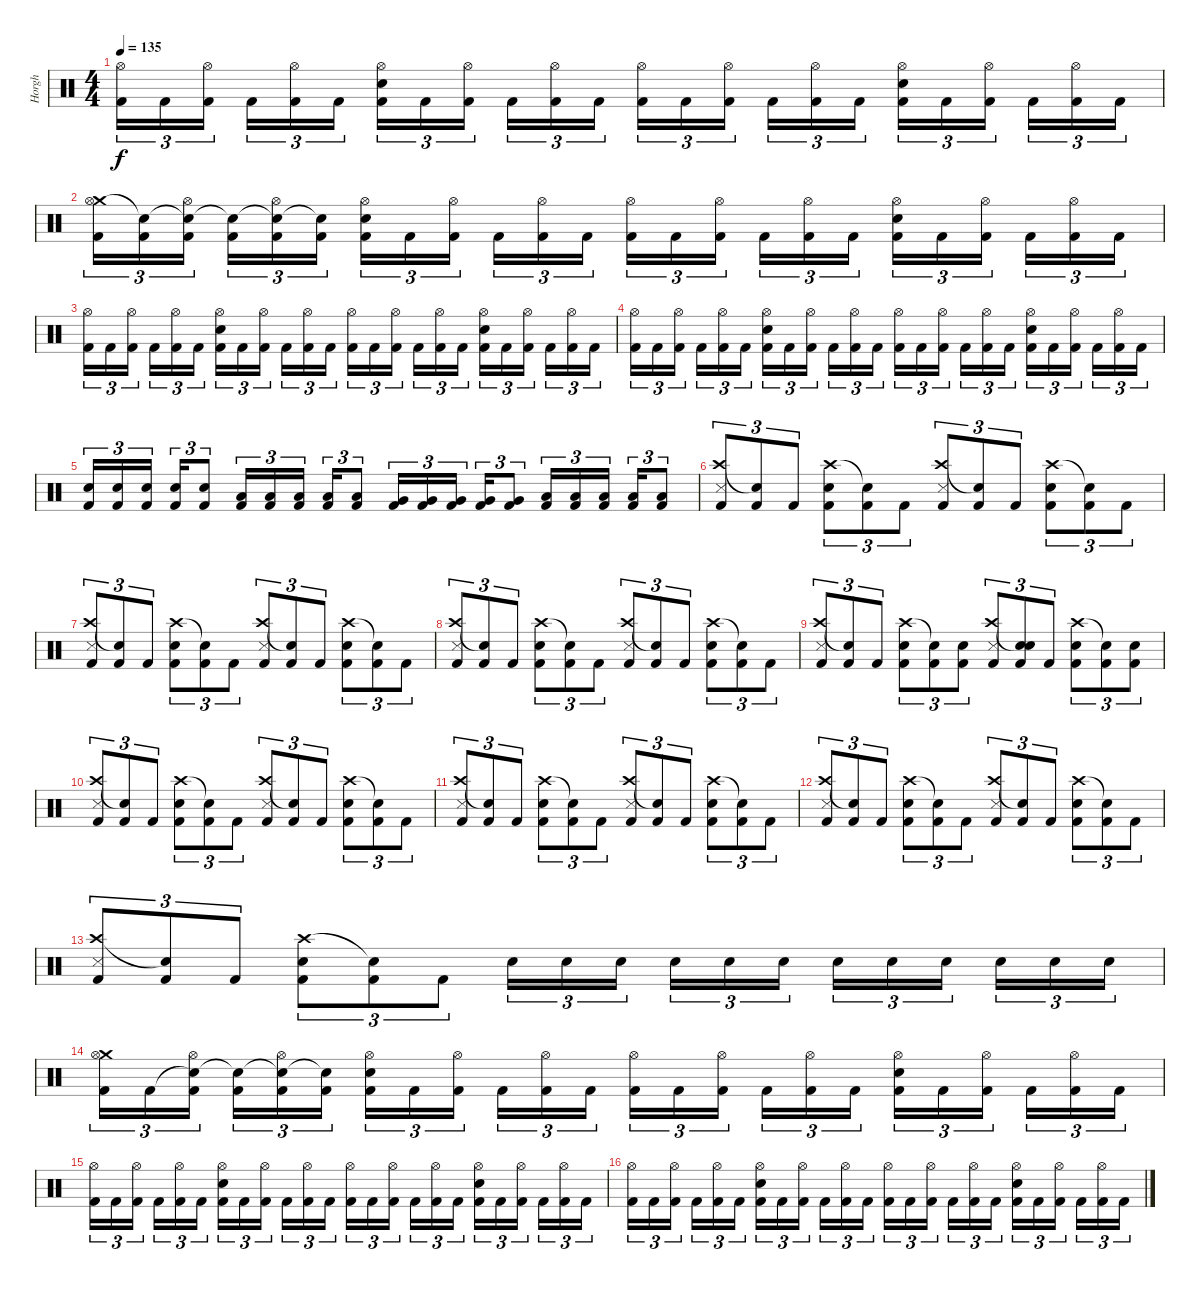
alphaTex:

\track ("Horgh" "Horgh") {instrument percussion}
\staff {score}
\articulation defaults
\ts (4 4)
\tempo 135
\clef neutral
\ks c
("Hi-Hat (open)" "Kick (hit) 2").16{tu (3 2) dy f} "Kick (hit) 2".16{tu (3 2)} ("Hi-Hat (open)" "Kick (hit) 2").16{tu (3 2) beam splitsecondary} "Kick (hit) 2".16{tu (3 2)} ("Hi-Hat (open)" "Kick (hit) 2").16{tu (3 2)} "Kick (hit) 2".16{tu (3 2)} ("Hi-Hat (open)" "Electric Snare (hit)" "Kick (hit) 2").16{tu (3 2)} "Kick (hit) 2".16{tu (3 2)} ("Hi-Hat (open)" "Kick (hit) 2").16{tu (3 2) beam splitsecondary} "Kick (hit) 2".16{tu (3 2)} ("Hi-Hat (open)" "Kick (hit) 2").16{tu (3 2)} "Kick (hit) 2".16{tu (3 2)} ("Hi-Hat (open)" "Kick (hit) 2").16{tu (3 2)} "Kick (hit) 2".16{tu (3 2)} ("Hi-Hat (open)" "Kick (hit) 2").16{tu (3 2) beam splitsecondary} "Kick (hit) 2".16{tu (3 2)} ("Hi-Hat (open)" "Kick (hit) 2").16{tu (3 2)} "Kick (hit) 2".16{tu (3 2)} ("Hi-Hat (open)" "Electric Snare (hit)" "Kick (hit) 2").16{tu (3 2)} "Kick (hit) 2".16{tu (3 2)} ("Hi-Hat (open)" "Kick (hit) 2").16{tu (3 2) beam splitsecondary} "Kick (hit) 2".16{tu (3 2)} ("Hi-Hat (open)" "Kick (hit) 2").16{tu (3 2)} "Kick (hit) 2".16{tu (3 2)} |
("Crash medium (hit)" "Hi-Hat (open)" "Kick (hit) 2").16{tu (3 2)} ("Snare (hit)"{t} "Kick (hit) 2").16{tu (3 2)} ("Snare (hit)"{t} "Hi-Hat (open)" "Kick (hit) 2").16{tu (3 2) beam splitsecondary} ("Snare (hit)"{t} "Kick (hit) 2").16{tu (3 2)} ("Snare (hit)"{t} "Hi-Hat (open)" "Kick (hit) 2").16{tu (3 2)} ("Snare (hit)"{t} "Kick (hit) 2").16{tu (3 2)} ("Hi-Hat (open)" "Electric Snare (hit)" "Kick (hit) 2").16{tu (3 2)} "Kick (hit) 2".16{tu (3 2)} ("Hi-Hat (open)" "Kick (hit) 2").16{tu (3 2) beam splitsecondary} "Kick (hit) 2".16{tu (3 2)} ("Hi-Hat (open)" "Kick (hit) 2").16{tu (3 2)} "Kick (hit) 2".16{tu (3 2)} ("Hi-Hat (open)" "Kick (hit) 2").16{tu (3 2)} "Kick (hit) 2".16{tu (3 2)} ("Hi-Hat (open)" "Kick (hit) 2").16{tu (3 2) beam splitsecondary} "Kick (hit) 2".16{tu (3 2)} ("Hi-Hat (open)" "Kick (hit) 2").16{tu (3 2)} "Kick (hit) 2".16{tu (3 2)} ("Hi-Hat (open)" "Electric Snare (hit)" "Kick (hit) 2").16{tu (3 2)} "Kick (hit) 2".16{tu (3 2)} ("Hi-Hat (open)" "Kick (hit) 2").16{tu (3 2) beam splitsecondary} "Kick (hit) 2".16{tu (3 2)} ("Hi-Hat (open)" "Kick (hit) 2").16{tu (3 2)} "Kick (hit) 2".16{tu (3 2)} |
("Hi-Hat (open)" "Kick (hit) 2").16{tu (3 2)} "Kick (hit) 2".16{tu (3 2)} ("Hi-Hat (open)" "Kick (hit) 2").16{tu (3 2) beam splitsecondary} "Kick (hit) 2".16{tu (3 2)} ("Hi-Hat (open)" "Kick (hit) 2").16{tu (3 2)} "Kick (hit) 2".16{tu (3 2)} ("Hi-Hat (open)" "Electric Snare (hit)" "Kick (hit) 2").16{tu (3 2)} "Kick (hit) 2".16{tu (3 2)} ("Hi-Hat (open)" "Kick (hit) 2").16{tu (3 2) beam splitsecondary} "Kick (hit) 2".16{tu (3 2)} ("Hi-Hat (open)" "Kick (hit) 2").16{tu (3 2)} "Kick (hit) 2".16{tu (3 2)} ("Hi-Hat (open)" "Kick (hit) 2").16{tu (3 2)} "Kick (hit) 2".16{tu (3 2)} ("Hi-Hat (open)" "Kick (hit) 2").16{tu (3 2) beam splitsecondary} "Kick (hit) 2".16{tu (3 2)} ("Hi-Hat (open)" "Kick (hit) 2").16{tu (3 2)} "Kick (hit) 2".16{tu (3 2)} ("Hi-Hat (open)" "Electric Snare (hit)" "Kick (hit) 2").16{tu (3 2)} "Kick (hit) 2".16{tu (3 2)} ("Hi-Hat (open)" "Kick (hit) 2").16{tu (3 2) beam splitsecondary} "Kick (hit) 2".16{tu (3 2)} ("Hi-Hat (open)" "Kick (hit) 2").16{tu (3 2)} "Kick (hit) 2".16{tu (3 2)} |
("Hi-Hat (open)" "Kick (hit) 2").16{tu (3 2)} "Kick (hit) 2".16{tu (3 2)} ("Hi-Hat (open)" "Kick (hit) 2").16{tu (3 2) beam splitsecondary} "Kick (hit) 2".16{tu (3 2)} ("Hi-Hat (open)" "Kick (hit) 2").16{tu (3 2)} "Kick (hit) 2".16{tu (3 2)} ("Hi-Hat (open)" "Electric Snare (hit)" "Kick (hit) 2").16{tu (3 2)} "Kick (hit) 2".16{tu (3 2)} ("Hi-Hat (open)" "Kick (hit) 2").16{tu (3 2) beam splitsecondary} "Kick (hit) 2".16{tu (3 2)} ("Hi-Hat (open)" "Kick (hit) 2").16{tu (3 2)} "Kick (hit) 2".16{tu (3 2)} ("Hi-Hat (open)" "Kick (hit) 2").16{tu (3 2)} "Kick (hit) 2".16{tu (3 2)} ("Hi-Hat (open)" "Kick (hit) 2").16{tu (3 2) beam splitsecondary} "Kick (hit) 2".16{tu (3 2)} ("Hi-Hat (open)" "Kick (hit) 2").16{tu (3 2)} "Kick (hit) 2".16{tu (3 2)} ("Hi-Hat (open)" "Electric Snare (hit)" "Kick (hit) 2").16{tu (3 2)} "Kick (hit) 2".16{tu (3 2)} ("Hi-Hat (open)" "Kick (hit) 2").16{tu (3 2) beam splitsecondary} "Kick (hit) 2".16{tu (3 2)} ("Hi-Hat (open)" "Kick (hit) 2").16{tu (3 2)} "Kick (hit) 2".16{tu (3 2)} |
("Electric Snare (hit)" "Kick (hit) 2").16{tu (3 2)} ("Electric Snare (hit)" "Kick (hit) 2").16{tu (3 2)} ("Electric Snare (hit)" "Kick (hit) 2").16{tu (3 2) beam splitsecondary} ("Electric Snare (hit)" "Kick (hit) 2").16{tu (3 2)} ("Electric Snare (hit)" "Kick (hit) 2").8{tu (3 2)} ("Low Floor Tom (hit)" "Kick (hit) 2").16{tu (3 2)} ("Low Floor Tom (hit)" "Kick (hit) 2").16{tu (3 2)} ("Low Floor Tom (hit)" "Kick (hit) 2").16{tu (3 2) beam splitsecondary} ("Low Floor Tom (hit)" "Kick (hit) 2").16{tu (3 2)} ("Low Floor Tom (hit)" "Kick (hit) 2").8{tu (3 2)} ("Very Low Tom (hit)" "Kick (hit) 2").16{tu (3 2)} ("Very Low Tom (hit)" "Kick (hit) 2").16{tu (3 2)} ("Very Low Tom (hit)" "Kick (hit) 2").16{tu (3 2) beam splitsecondary} ("Very Low Tom (hit)" "Kick (hit) 2").16{tu (3 2)} ("Very Low Tom (hit)" "Kick (hit) 2").8{tu (3 2)} ("Low Tom (hit)" "Kick (hit) 2").16{tu (3 2)} ("Low Tom (hit)" "Kick (hit) 2").16{tu (3 2)} ("Low Tom (hit)" "Kick (hit) 2").16{tu (3 2) beam splitsecondary} ("Low Tom (hit)" "Kick (hit) 2").16{tu (3 2)} ("Low Tom (hit)" "Kick (hit) 2").8{tu (3 2)} |
("Crash high (hit)" "Snare (side stick) 3" "Kick (hit) 2").8{tu (3 2)} ("Snare (hit)"{t} "Kick (hit) 2").8{tu (3 2)} "Kick (hit) 2".8{tu (3 2)} ("Crash high (hit)" "Electric Snare (hit)" "Kick (hit) 2").8{tu (3 2)} ("Snare (hit)"{t} "Kick (hit) 2").8{tu (3 2)} "Kick (hit) 2".8{tu (3 2)} ("Crash high (hit)" "Snare (side stick) 3" "Kick (hit) 2").8{tu (3 2)} ("Snare (hit)"{t} "Kick (hit) 2").8{tu (3 2)} "Kick (hit) 2".8{tu (3 2)} ("Crash high (hit)" "Electric Snare (hit)" "Kick (hit) 2").8{tu (3 2)} ("Snare (hit)"{t} "Kick (hit) 2").8{tu (3 2)} "Kick (hit) 2".8{tu (3 2)} |
("Crash high (hit)" "Snare (side stick) 3" "Kick (hit) 2").8{tu (3 2)} ("Snare (hit)"{t} "Kick (hit) 2").8{tu (3 2)} "Kick (hit) 2".8{tu (3 2)} ("Crash high (hit)" "Electric Snare (hit)" "Kick (hit) 2").8{tu (3 2)} ("Snare (hit)"{t} "Kick (hit) 2").8{tu (3 2)} "Kick (hit) 2".8{tu (3 2)} ("Crash high (hit)" "Snare (side stick) 3" "Kick (hit) 2").8{tu (3 2)} ("Snare (hit)"{t} "Kick (hit) 2").8{tu (3 2)} "Kick (hit) 2".8{tu (3 2)} ("Crash high (hit)" "Electric Snare (hit)" "Kick (hit) 2").8{tu (3 2)} ("Snare (hit)"{t} "Kick (hit) 2").8{tu (3 2)} "Kick (hit) 2".8{tu (3 2)} |
("Crash high (hit)" "Snare (side stick) 3" "Kick (hit) 2").8{tu (3 2)} ("Snare (hit)"{t} "Kick (hit) 2").8{tu (3 2)} "Kick (hit) 2".8{tu (3 2)} ("Crash high (hit)" "Electric Snare (hit)" "Kick (hit) 2").8{tu (3 2)} ("Snare (hit)"{t} "Kick (hit) 2").8{tu (3 2)} "Kick (hit) 2".8{tu (3 2)} ("Crash high (hit)" "Snare (side stick) 3" "Kick (hit) 2").8{tu (3 2)} ("Snare (hit)"{t} "Kick (hit) 2").8{tu (3 2)} "Kick (hit) 2".8{tu (3 2)} ("Crash high (hit)" "Electric Snare (hit)" "Kick (hit) 2").8{tu (3 2)} ("Snare (hit)"{t} "Kick (hit) 2").8{tu (3 2)} "Kick (hit) 2".8{tu (3 2)} |
("Crash high (hit)" "Snare (side stick) 3" "Kick (hit) 2").8{tu (3 2)} ("Snare (hit)"{t} "Kick (hit) 2").8{tu (3 2)} "Kick (hit) 2".8{tu (3 2)} ("Crash high (hit)" "Electric Snare (hit)" "Kick (hit) 2").8{tu (3 2)} ("Snare (hit)"{t} "Kick (hit) 2").8{tu (3 2)} ("Electric Snare (hit)" "Kick (hit) 2").8{tu (3 2)} ("Crash high (hit)" "Snare (side stick) 3" "Kick (hit) 2").8{tu (3 2)} ("Snare (hit)"{t} "Electric Snare (hit)" "Kick (hit) 2").8{tu (3 2)} "Kick (hit) 2".8{tu (3 2)} ("Crash high (hit)" "Electric Snare (hit)" "Kick (hit) 2").8{tu (3 2)} ("Snare (hit)"{t} "Kick (hit) 2").8{tu (3 2)} ("Electric Snare (hit)" "Kick (hit) 2").8{tu (3 2)} |
("Crash high (hit)" "Snare (side stick) 3" "Kick (hit) 2").8{tu (3 2)} ("Snare (hit)"{t} "Kick (hit) 2").8{tu (3 2)} "Kick (hit) 2".8{tu (3 2)} ("Crash high (hit)" "Electric Snare (hit)" "Kick (hit) 2").8{tu (3 2)} ("Snare (hit)"{t} "Kick (hit) 2").8{tu (3 2)} "Kick (hit) 2".8{tu (3 2)} ("Crash high (hit)" "Snare (side stick) 3" "Kick (hit) 2").8{tu (3 2)} ("Snare (hit)"{t} "Kick (hit) 2").8{tu (3 2)} "Kick (hit) 2".8{tu (3 2)} ("Crash high (hit)" "Electric Snare (hit)" "Kick (hit) 2").8{tu (3 2)} ("Snare (hit)"{t} "Kick (hit) 2").8{tu (3 2)} "Kick (hit) 2".8{tu (3 2)} |
("Crash high (hit)" "Snare (side stick) 3" "Kick (hit) 2").8{tu (3 2)} ("Snare (hit)"{t} "Kick (hit) 2").8{tu (3 2)} "Kick (hit) 2".8{tu (3 2)} ("Crash high (hit)" "Electric Snare (hit)" "Kick (hit) 2").8{tu (3 2)} ("Snare (hit)"{t} "Kick (hit) 2").8{tu (3 2)} "Kick (hit) 2".8{tu (3 2)} ("Crash high (hit)" "Snare (side stick) 3" "Kick (hit) 2").8{tu (3 2)} ("Snare (hit)"{t} "Kick (hit) 2").8{tu (3 2)} "Kick (hit) 2".8{tu (3 2)} ("Crash high (hit)" "Electric Snare (hit)" "Kick (hit) 2").8{tu (3 2)} ("Snare (hit)"{t} "Kick (hit) 2").8{tu (3 2)} "Kick (hit) 2".8{tu (3 2)} |
("Crash high (hit)" "Snare (side stick) 3" "Kick (hit) 2").8{tu (3 2)} ("Snare (hit)"{t} "Kick (hit) 2").8{tu (3 2)} "Kick (hit) 2".8{tu (3 2)} ("Crash high (hit)" "Electric Snare (hit)" "Kick (hit) 2").8{tu (3 2)} ("Snare (hit)"{t} "Kick (hit) 2").8{tu (3 2)} "Kick (hit) 2".8{tu (3 2)} ("Crash high (hit)" "Snare (side stick) 3" "Kick (hit) 2").8{tu (3 2)} ("Snare (hit)"{t} "Kick (hit) 2").8{tu (3 2)} "Kick (hit) 2".8{tu (3 2)} ("Crash high (hit)" "Electric Snare (hit)" "Kick (hit) 2").8{tu (3 2)} ("Snare (hit)"{t} "Kick (hit) 2").8{tu (3 2)} "Kick (hit) 2".8{tu (3 2)} |
("Crash high (hit)" "Snare (side stick) 3" "Kick (hit) 2").8{tu (3 2)} ("Snare (hit)"{t} "Kick (hit) 2").8{tu (3 2)} "Kick (hit) 2".8{tu (3 2)} ("Crash high (hit)" "Electric Snare (hit)" "Kick (hit) 2").8{tu (3 2)} ("Snare (hit)"{t} "Kick (hit) 2").8{tu (3 2)} "Kick (hit) 2".8{tu (3 2)} "Electric Snare (hit)".16{tu (3 2)} "Electric Snare (hit)".16{tu (3 2)} "Electric Snare (hit)".16{tu (3 2) beam splitsecondary} "Electric Snare (hit)".16{tu (3 2)} "Electric Snare (hit)".16{tu (3 2)} "Electric Snare (hit)".16{tu (3 2)} "Electric Snare (hit)".16{tu (3 2)} "Electric Snare (hit)".16{tu (3 2)} "Electric Snare (hit)".16{tu (3 2) beam splitsecondary} "Electric Snare (hit)".16{tu (3 2)} "Electric Snare (hit)".16{tu (3 2)} "Electric Snare (hit)".16{tu (3 2)} |
("Crash medium (hit)" "Hi-Hat (open)" "Kick (hit) 2").16{tu (3 2)} "Kick (hit) 2".16{tu (3 2)} ("Snare (hit)"{t} "Hi-Hat (open)" "Kick (hit) 2").16{tu (3 2) beam splitsecondary} ("Snare (hit)"{t} "Kick (hit) 2").16{tu (3 2)} ("Snare (hit)"{t} "Hi-Hat (open)" "Kick (hit) 2").16{tu (3 2)} ("Snare (hit)"{t} "Kick (hit) 2").16{tu (3 2)} ("Hi-Hat (open)" "Electric Snare (hit)" "Kick (hit) 2").16{tu (3 2)} "Kick (hit) 2".16{tu (3 2)} ("Hi-Hat (open)" "Kick (hit) 2").16{tu (3 2) beam splitsecondary} "Kick (hit) 2".16{tu (3 2)} ("Hi-Hat (open)" "Kick (hit) 2").16{tu (3 2)} "Kick (hit) 2".16{tu (3 2)} ("Hi-Hat (open)" "Kick (hit) 2").16{tu (3 2)} "Kick (hit) 2".16{tu (3 2)} ("Hi-Hat (open)" "Kick (hit) 2").16{tu (3 2) beam splitsecondary} "Kick (hit) 2".16{tu (3 2)} ("Hi-Hat (open)" "Kick (hit) 2").16{tu (3 2)} "Kick (hit) 2".16{tu (3 2)} ("Hi-Hat (open)" "Electric Snare (hit)" "Kick (hit) 2").16{tu (3 2)} "Kick (hit) 2".16{tu (3 2)} ("Hi-Hat (open)" "Kick (hit) 2").16{tu (3 2) beam splitsecondary} "Kick (hit) 2".16{tu (3 2)} ("Hi-Hat (open)" "Kick (hit) 2").16{tu (3 2)} "Kick (hit) 2".16{tu (3 2)} |
("Hi-Hat (open)" "Kick (hit) 2").16{tu (3 2)} "Kick (hit) 2".16{tu (3 2)} ("Hi-Hat (open)" "Kick (hit) 2").16{tu (3 2) beam splitsecondary} "Kick (hit) 2".16{tu (3 2)} ("Hi-Hat (open)" "Kick (hit) 2").16{tu (3 2)} "Kick (hit) 2".16{tu (3 2)} ("Hi-Hat (open)" "Electric Snare (hit)" "Kick (hit) 2").16{tu (3 2)} "Kick (hit) 2".16{tu (3 2)} ("Hi-Hat (open)" "Kick (hit) 2").16{tu (3 2) beam splitsecondary} "Kick (hit) 2".16{tu (3 2)} ("Hi-Hat (open)" "Kick (hit) 2").16{tu (3 2)} "Kick (hit) 2".16{tu (3 2)} ("Hi-Hat (open)" "Kick (hit) 2").16{tu (3 2)} "Kick (hit) 2".16{tu (3 2)} ("Hi-Hat (open)" "Kick (hit) 2").16{tu (3 2) beam splitsecondary} "Kick (hit) 2".16{tu (3 2)} ("Hi-Hat (open)" "Kick (hit) 2").16{tu (3 2)} "Kick (hit) 2".16{tu (3 2)} ("Hi-Hat (open)" "Electric Snare (hit)" "Kick (hit) 2").16{tu (3 2)} "Kick (hit) 2".16{tu (3 2)} ("Hi-Hat (open)" "Kick (hit) 2").16{tu (3 2) beam splitsecondary} "Kick (hit) 2".16{tu (3 2)} ("Hi-Hat (open)" "Kick (hit) 2").16{tu (3 2)} "Kick (hit) 2".16{tu (3 2)} |
("Hi-Hat (open)" "Kick (hit) 2").16{tu (3 2)} "Kick (hit) 2".16{tu (3 2)} ("Hi-Hat (open)" "Kick (hit) 2").16{tu (3 2) beam splitsecondary} "Kick (hit) 2".16{tu (3 2)} ("Hi-Hat (open)" "Kick (hit) 2").16{tu (3 2)} "Kick (hit) 2".16{tu (3 2)} ("Hi-Hat (open)" "Electric Snare (hit)" "Kick (hit) 2").16{tu (3 2)} "Kick (hit) 2".16{tu (3 2)} ("Hi-Hat (open)" "Kick (hit) 2").16{tu (3 2) beam splitsecondary} "Kick (hit) 2".16{tu (3 2)} ("Hi-Hat (open)" "Kick (hit) 2").16{tu (3 2)} "Kick (hit) 2".16{tu (3 2)} ("Hi-Hat (open)" "Kick (hit) 2").16{tu (3 2)} "Kick (hit) 2".16{tu (3 2)} ("Hi-Hat (open)" "Kick (hit) 2").16{tu (3 2) beam splitsecondary} "Kick (hit) 2".16{tu (3 2)} ("Hi-Hat (open)" "Kick (hit) 2").16{tu (3 2)} "Kick (hit) 2".16{tu (3 2)} ("Hi-Hat (open)" "Electric Snare (hit)" "Kick (hit) 2").16{tu (3 2)} "Kick (hit) 2".16{tu (3 2)} ("Hi-Hat (open)" "Kick (hit) 2").16{tu (3 2) beam splitsecondary} "Kick (hit) 2".16{tu (3 2)} ("Hi-Hat (open)" "Kick (hit) 2").16{tu (3 2)} "Kick (hit) 2".16{tu (3 2)}
